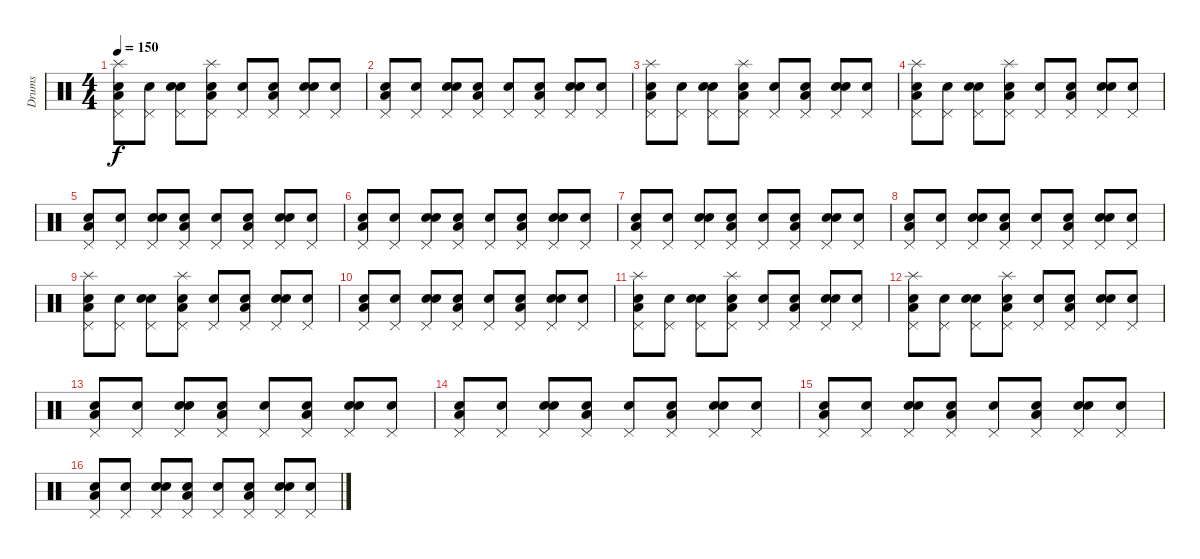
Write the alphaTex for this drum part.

\track ("Drums" "Drums") {instrument percussion}
\staff {score}
\articulation defaults
\ts (4 4)
\tempo 150
\clef neutral
\ks c
("Snare (hit)" "Low Floor Tom (hit)" "Pedal Hi-Hat (hit)" "Splash (hit)").8{dy f} ("Snare (hit)" "Pedal Hi-Hat (hit)").8 ("Snare (hit)" "Electric Snare (hit)" "Pedal Hi-Hat (hit)").8 ("Snare (hit)" "Low Floor Tom (hit)" "Pedal Hi-Hat (hit)" "Splash (hit)").8 ("Snare (hit)" "Pedal Hi-Hat (hit)").8 ("Snare (hit)" "Low Floor Tom (hit)" "Pedal Hi-Hat (hit)").8 ("Snare (hit)" "Electric Snare (hit)" "Pedal Hi-Hat (hit)").8 ("Snare (hit)" "Pedal Hi-Hat (hit)").8 |
("Snare (hit)" "Low Floor Tom (hit)" "Pedal Hi-Hat (hit)").8 ("Snare (hit)" "Pedal Hi-Hat (hit)").8 ("Snare (hit)" "Electric Snare (hit)" "Pedal Hi-Hat (hit)").8 ("Snare (hit)" "Low Floor Tom (hit)" "Pedal Hi-Hat (hit)").8 ("Snare (hit)" "Pedal Hi-Hat (hit)").8 ("Snare (hit)" "Low Floor Tom (hit)" "Pedal Hi-Hat (hit)").8 ("Snare (hit)" "Electric Snare (hit)" "Pedal Hi-Hat (hit)").8 ("Snare (hit)" "Pedal Hi-Hat (hit)").8 |
("Snare (hit)" "Low Floor Tom (hit)" "Pedal Hi-Hat (hit)" "Splash (hit)").8 ("Snare (hit)" "Pedal Hi-Hat (hit)").8 ("Snare (hit)" "Electric Snare (hit)" "Pedal Hi-Hat (hit)").8 ("Snare (hit)" "Low Floor Tom (hit)" "Pedal Hi-Hat (hit)" "Splash (hit)").8 ("Snare (hit)" "Pedal Hi-Hat (hit)").8 ("Snare (hit)" "Low Floor Tom (hit)" "Pedal Hi-Hat (hit)").8 ("Snare (hit)" "Electric Snare (hit)" "Pedal Hi-Hat (hit)").8 ("Snare (hit)" "Pedal Hi-Hat (hit)").8 |
("Snare (hit)" "Low Floor Tom (hit)" "Pedal Hi-Hat (hit)" "Splash (hit)").8 ("Snare (hit)" "Pedal Hi-Hat (hit)").8 ("Snare (hit)" "Electric Snare (hit)" "Pedal Hi-Hat (hit)").8 ("Snare (hit)" "Low Floor Tom (hit)" "Pedal Hi-Hat (hit)" "Splash (hit)").8 ("Snare (hit)" "Pedal Hi-Hat (hit)").8 ("Snare (hit)" "Low Floor Tom (hit)" "Pedal Hi-Hat (hit)").8 ("Snare (hit)" "Electric Snare (hit)" "Pedal Hi-Hat (hit)").8 ("Snare (hit)" "Pedal Hi-Hat (hit)").8 |
("Snare (hit)" "Low Floor Tom (hit)" "Pedal Hi-Hat (hit)").8 ("Snare (hit)" "Pedal Hi-Hat (hit)").8 ("Snare (hit)" "Electric Snare (hit)" "Pedal Hi-Hat (hit)").8 ("Snare (hit)" "Low Floor Tom (hit)" "Pedal Hi-Hat (hit)").8 ("Snare (hit)" "Pedal Hi-Hat (hit)").8 ("Snare (hit)" "Low Floor Tom (hit)" "Pedal Hi-Hat (hit)").8 ("Snare (hit)" "Electric Snare (hit)" "Pedal Hi-Hat (hit)").8 ("Snare (hit)" "Pedal Hi-Hat (hit)").8 |
("Snare (hit)" "Low Floor Tom (hit)" "Pedal Hi-Hat (hit)").8 ("Snare (hit)" "Pedal Hi-Hat (hit)").8 ("Snare (hit)" "Electric Snare (hit)" "Pedal Hi-Hat (hit)").8 ("Snare (hit)" "Low Floor Tom (hit)" "Pedal Hi-Hat (hit)").8 ("Snare (hit)" "Pedal Hi-Hat (hit)").8 ("Snare (hit)" "Low Floor Tom (hit)" "Pedal Hi-Hat (hit)").8 ("Snare (hit)" "Electric Snare (hit)" "Pedal Hi-Hat (hit)").8 ("Snare (hit)" "Pedal Hi-Hat (hit)").8 |
("Snare (hit)" "Low Floor Tom (hit)" "Pedal Hi-Hat (hit)").8 ("Snare (hit)" "Pedal Hi-Hat (hit)").8 ("Snare (hit)" "Electric Snare (hit)" "Pedal Hi-Hat (hit)").8 ("Snare (hit)" "Low Floor Tom (hit)" "Pedal Hi-Hat (hit)").8 ("Snare (hit)" "Pedal Hi-Hat (hit)").8 ("Snare (hit)" "Low Floor Tom (hit)" "Pedal Hi-Hat (hit)").8 ("Snare (hit)" "Electric Snare (hit)" "Pedal Hi-Hat (hit)").8 ("Snare (hit)" "Pedal Hi-Hat (hit)").8 |
("Snare (hit)" "Low Floor Tom (hit)" "Pedal Hi-Hat (hit)").8 ("Snare (hit)" "Pedal Hi-Hat (hit)").8 ("Snare (hit)" "Electric Snare (hit)" "Pedal Hi-Hat (hit)").8 ("Snare (hit)" "Low Floor Tom (hit)" "Pedal Hi-Hat (hit)").8 ("Snare (hit)" "Pedal Hi-Hat (hit)").8 ("Snare (hit)" "Low Floor Tom (hit)" "Pedal Hi-Hat (hit)").8 ("Snare (hit)" "Electric Snare (hit)" "Pedal Hi-Hat (hit)").8 ("Snare (hit)" "Pedal Hi-Hat (hit)").8 |
("Snare (hit)" "Low Floor Tom (hit)" "Pedal Hi-Hat (hit)" "Splash (hit)").8 ("Snare (hit)" "Pedal Hi-Hat (hit)").8 ("Snare (hit)" "Electric Snare (hit)" "Pedal Hi-Hat (hit)").8 ("Snare (hit)" "Low Floor Tom (hit)" "Pedal Hi-Hat (hit)" "Splash (hit)").8 ("Snare (hit)" "Pedal Hi-Hat (hit)").8 ("Snare (hit)" "Low Floor Tom (hit)" "Pedal Hi-Hat (hit)").8 ("Snare (hit)" "Electric Snare (hit)" "Pedal Hi-Hat (hit)").8 ("Snare (hit)" "Pedal Hi-Hat (hit)").8 |
("Snare (hit)" "Low Floor Tom (hit)" "Pedal Hi-Hat (hit)").8 ("Snare (hit)" "Pedal Hi-Hat (hit)").8 ("Snare (hit)" "Electric Snare (hit)" "Pedal Hi-Hat (hit)").8 ("Snare (hit)" "Low Floor Tom (hit)" "Pedal Hi-Hat (hit)").8 ("Snare (hit)" "Pedal Hi-Hat (hit)").8 ("Snare (hit)" "Low Floor Tom (hit)" "Pedal Hi-Hat (hit)").8 ("Snare (hit)" "Electric Snare (hit)" "Pedal Hi-Hat (hit)").8 ("Snare (hit)" "Pedal Hi-Hat (hit)").8 |
("Snare (hit)" "Low Floor Tom (hit)" "Pedal Hi-Hat (hit)" "Splash (hit)").8 ("Snare (hit)" "Pedal Hi-Hat (hit)").8 ("Snare (hit)" "Electric Snare (hit)" "Pedal Hi-Hat (hit)").8 ("Snare (hit)" "Low Floor Tom (hit)" "Pedal Hi-Hat (hit)" "Splash (hit)").8 ("Snare (hit)" "Pedal Hi-Hat (hit)").8 ("Snare (hit)" "Low Floor Tom (hit)" "Pedal Hi-Hat (hit)").8 ("Snare (hit)" "Electric Snare (hit)" "Pedal Hi-Hat (hit)").8 ("Snare (hit)" "Pedal Hi-Hat (hit)").8 |
("Snare (hit)" "Low Floor Tom (hit)" "Pedal Hi-Hat (hit)" "Splash (hit)").8 ("Snare (hit)" "Pedal Hi-Hat (hit)").8 ("Snare (hit)" "Electric Snare (hit)" "Pedal Hi-Hat (hit)").8 ("Snare (hit)" "Low Floor Tom (hit)" "Pedal Hi-Hat (hit)" "Splash (hit)").8 ("Snare (hit)" "Pedal Hi-Hat (hit)").8 ("Snare (hit)" "Low Floor Tom (hit)" "Pedal Hi-Hat (hit)").8 ("Snare (hit)" "Electric Snare (hit)" "Pedal Hi-Hat (hit)").8 ("Snare (hit)" "Pedal Hi-Hat (hit)").8 |
("Snare (hit)" "Low Floor Tom (hit)" "Pedal Hi-Hat (hit)").8 ("Snare (hit)" "Pedal Hi-Hat (hit)").8 ("Snare (hit)" "Electric Snare (hit)" "Pedal Hi-Hat (hit)").8 ("Snare (hit)" "Low Floor Tom (hit)" "Pedal Hi-Hat (hit)").8 ("Snare (hit)" "Pedal Hi-Hat (hit)").8 ("Snare (hit)" "Low Floor Tom (hit)" "Pedal Hi-Hat (hit)").8 ("Snare (hit)" "Electric Snare (hit)" "Pedal Hi-Hat (hit)").8 ("Snare (hit)" "Pedal Hi-Hat (hit)").8 |
("Snare (hit)" "Low Floor Tom (hit)" "Pedal Hi-Hat (hit)").8 ("Snare (hit)" "Pedal Hi-Hat (hit)").8 ("Snare (hit)" "Electric Snare (hit)" "Pedal Hi-Hat (hit)").8 ("Snare (hit)" "Low Floor Tom (hit)" "Pedal Hi-Hat (hit)").8 ("Snare (hit)" "Pedal Hi-Hat (hit)").8 ("Snare (hit)" "Low Floor Tom (hit)" "Pedal Hi-Hat (hit)").8 ("Snare (hit)" "Electric Snare (hit)" "Pedal Hi-Hat (hit)").8 ("Snare (hit)" "Pedal Hi-Hat (hit)").8 |
("Snare (hit)" "Low Floor Tom (hit)" "Pedal Hi-Hat (hit)").8 ("Snare (hit)" "Pedal Hi-Hat (hit)").8 ("Snare (hit)" "Electric Snare (hit)" "Pedal Hi-Hat (hit)").8 ("Snare (hit)" "Low Floor Tom (hit)" "Pedal Hi-Hat (hit)").8 ("Snare (hit)" "Pedal Hi-Hat (hit)").8 ("Snare (hit)" "Low Floor Tom (hit)" "Pedal Hi-Hat (hit)").8 ("Snare (hit)" "Electric Snare (hit)" "Pedal Hi-Hat (hit)").8 ("Snare (hit)" "Pedal Hi-Hat (hit)").8 |
("Snare (hit)" "Low Floor Tom (hit)" "Pedal Hi-Hat (hit)").8 ("Snare (hit)" "Pedal Hi-Hat (hit)").8 ("Snare (hit)" "Electric Snare (hit)" "Pedal Hi-Hat (hit)").8 ("Snare (hit)" "Low Floor Tom (hit)" "Pedal Hi-Hat (hit)").8 ("Snare (hit)" "Pedal Hi-Hat (hit)").8 ("Snare (hit)" "Low Floor Tom (hit)" "Pedal Hi-Hat (hit)").8 ("Snare (hit)" "Electric Snare (hit)" "Pedal Hi-Hat (hit)").8 ("Snare (hit)" "Pedal Hi-Hat (hit)").8
